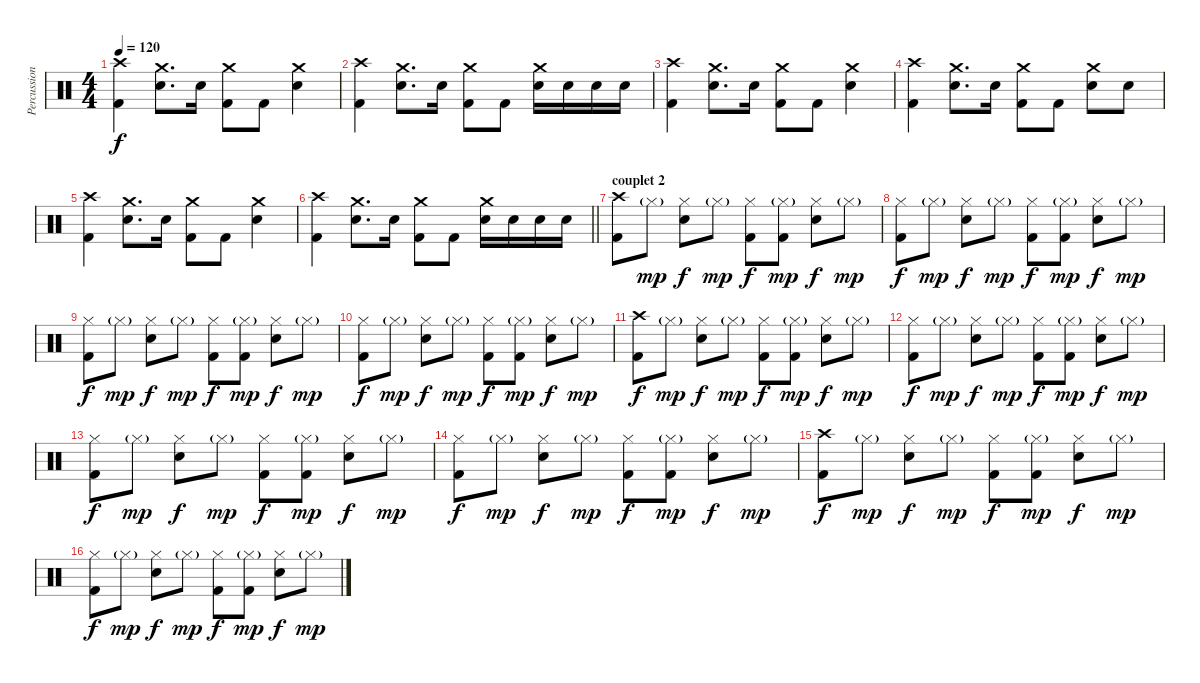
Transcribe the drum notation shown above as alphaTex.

\track ("Percussions" "Percussion") {instrument percussion}
\staff {score}
\articulation defaults
\ts (4 4)
\tempo 120
\clef neutral
\ks c
("Crash high (hit)" "Kick (hit) 2").4{dy f} ("Crash medium (hit)" "Snare (hit) 2").8{d} "Snare (hit) 2".16 ("Crash medium (hit)" "Kick (hit) 2").8 "Kick (hit) 2".8 ("Crash medium (hit)" "Snare (hit) 2").4 |
("Crash high (hit)" "Kick (hit) 2").4 ("Crash medium (hit)" "Snare (hit) 2").8{d} "Snare (hit) 2".16 ("Crash medium (hit)" "Kick (hit) 2").8 "Kick (hit) 2".8 ("Crash medium (hit)" "Snare (hit) 2").16 "Snare (hit) 2".16 "Snare (hit) 2".16 "Snare (hit) 2".16 |
("Crash high (hit)" "Kick (hit) 2").4 ("Crash medium (hit)" "Snare (hit) 2").8{d} "Snare (hit) 2".16 ("Crash medium (hit)" "Kick (hit) 2").8 "Kick (hit) 2".8 ("Crash medium (hit)" "Snare (hit) 2").4 |
("Crash high (hit)" "Kick (hit) 2").4 ("Crash medium (hit)" "Snare (hit) 2").8{d} "Snare (hit) 2".16 ("Crash medium (hit)" "Kick (hit) 2").8 "Kick (hit) 2".8 ("Crash medium (hit)" "Snare (hit) 2").8 "Snare (hit) 2".8 |
("Crash high (hit)" "Kick (hit) 2").4 ("Crash medium (hit)" "Snare (hit) 2").8{d} "Snare (hit) 2".16 ("Crash medium (hit)" "Kick (hit) 2").8 "Kick (hit) 2".8 ("Crash medium (hit)" "Snare (hit) 2").4 |
\barLineRight lightlight
("Crash high (hit)" "Kick (hit) 2").4 ("Crash medium (hit)" "Snare (hit) 2").8{d} "Snare (hit) 2".16 ("Crash medium (hit)" "Kick (hit) 2").8 "Kick (hit) 2".8 ("Crash medium (hit)" "Snare (hit) 2").16 "Snare (hit) 2".16 "Snare (hit) 2".16 "Snare (hit) 2".16 |
\section ("" "couplet 2")
("Crash high (hit)" "Kick (hit) 2").8 "Hi-Hat (closed)"{g}.8{dy mp} ("Hi-Hat (closed)" "Snare (hit) 2").8{dy f} "Hi-Hat (closed)"{g}.8{dy mp} ("Hi-Hat (closed)" "Kick (hit) 2").8{dy f} ("Hi-Hat (closed)"{g} "Kick (hit) 2").8{dy mp} ("Hi-Hat (closed)" "Snare (hit) 2").8{dy f} "Hi-Hat (closed)"{g}.8{dy mp} |
("Hi-Hat (closed)" "Kick (hit) 2").8{dy f} "Hi-Hat (closed)"{g}.8{dy mp} ("Hi-Hat (closed)" "Snare (hit) 2").8{dy f} "Hi-Hat (closed)"{g}.8{dy mp} ("Hi-Hat (closed)" "Kick (hit) 2").8{dy f} ("Hi-Hat (closed)"{g} "Kick (hit) 2").8{dy mp} ("Hi-Hat (closed)" "Snare (hit) 2").8{dy f} "Hi-Hat (closed)"{g}.8{dy mp} |
("Hi-Hat (closed)" "Kick (hit) 2").8{dy f} "Hi-Hat (closed)"{g}.8{dy mp} ("Hi-Hat (closed)" "Snare (hit) 2").8{dy f} "Hi-Hat (closed)"{g}.8{dy mp} ("Hi-Hat (closed)" "Kick (hit) 2").8{dy f} ("Hi-Hat (closed)"{g} "Kick (hit) 2").8{dy mp} ("Hi-Hat (closed)" "Snare (hit) 2").8{dy f} "Hi-Hat (closed)"{g}.8{dy mp} |
("Hi-Hat (closed)" "Kick (hit) 2").8{dy f} "Hi-Hat (closed)"{g}.8{dy mp} ("Hi-Hat (closed)" "Snare (hit) 2").8{dy f} "Hi-Hat (closed)"{g}.8{dy mp} ("Hi-Hat (closed)" "Kick (hit) 2").8{dy f} ("Hi-Hat (closed)"{g} "Kick (hit) 2").8{dy mp} ("Hi-Hat (closed)" "Snare (hit) 2").8{dy f} "Hi-Hat (closed)"{g}.8{dy mp} |
("Crash high (hit)" "Kick (hit) 2").8{dy f} "Hi-Hat (closed)"{g}.8{dy mp} ("Hi-Hat (closed)" "Snare (hit) 2").8{dy f} "Hi-Hat (closed)"{g}.8{dy mp} ("Hi-Hat (closed)" "Kick (hit) 2").8{dy f} ("Hi-Hat (closed)"{g} "Kick (hit) 2").8{dy mp} ("Hi-Hat (closed)" "Snare (hit) 2").8{dy f} "Hi-Hat (closed)"{g}.8{dy mp} |
("Hi-Hat (closed)" "Kick (hit) 2").8{dy f} "Hi-Hat (closed)"{g}.8{dy mp} ("Hi-Hat (closed)" "Snare (hit) 2").8{dy f} "Hi-Hat (closed)"{g}.8{dy mp} ("Hi-Hat (closed)" "Kick (hit) 2").8{dy f} ("Hi-Hat (closed)"{g} "Kick (hit) 2").8{dy mp} ("Hi-Hat (closed)" "Snare (hit) 2").8{dy f} "Hi-Hat (closed)"{g}.8{dy mp} |
("Hi-Hat (closed)" "Kick (hit) 2").8{dy f} "Hi-Hat (closed)"{g}.8{dy mp} ("Hi-Hat (closed)" "Snare (hit) 2").8{dy f} "Hi-Hat (closed)"{g}.8{dy mp} ("Hi-Hat (closed)" "Kick (hit) 2").8{dy f} ("Hi-Hat (closed)"{g} "Kick (hit) 2").8{dy mp} ("Hi-Hat (closed)" "Snare (hit) 2").8{dy f} "Hi-Hat (closed)"{g}.8{dy mp} |
("Hi-Hat (closed)" "Kick (hit) 2").8{dy f} "Hi-Hat (closed)"{g}.8{dy mp} ("Hi-Hat (closed)" "Snare (hit) 2").8{dy f} "Hi-Hat (closed)"{g}.8{dy mp} ("Hi-Hat (closed)" "Kick (hit) 2").8{dy f} ("Hi-Hat (closed)"{g} "Kick (hit) 2").8{dy mp} ("Hi-Hat (closed)" "Snare (hit) 2").8{dy f} "Hi-Hat (closed)"{g}.8{dy mp} |
("Crash high (hit)" "Kick (hit) 2").8{dy f} "Hi-Hat (closed)"{g}.8{dy mp} ("Hi-Hat (closed)" "Snare (hit) 2").8{dy f} "Hi-Hat (closed)"{g}.8{dy mp} ("Hi-Hat (closed)" "Kick (hit) 2").8{dy f} ("Hi-Hat (closed)"{g} "Kick (hit) 2").8{dy mp} ("Hi-Hat (closed)" "Snare (hit) 2").8{dy f} "Hi-Hat (closed)"{g}.8{dy mp} |
("Hi-Hat (closed)" "Kick (hit) 2").8{dy f} "Hi-Hat (closed)"{g}.8{dy mp} ("Hi-Hat (closed)" "Snare (hit) 2").8{dy f} "Hi-Hat (closed)"{g}.8{dy mp} ("Hi-Hat (closed)" "Kick (hit) 2").8{dy f} ("Hi-Hat (closed)"{g} "Kick (hit) 2").8{dy mp} ("Hi-Hat (closed)" "Snare (hit) 2").8{dy f} "Hi-Hat (closed)"{g}.8{dy mp}
